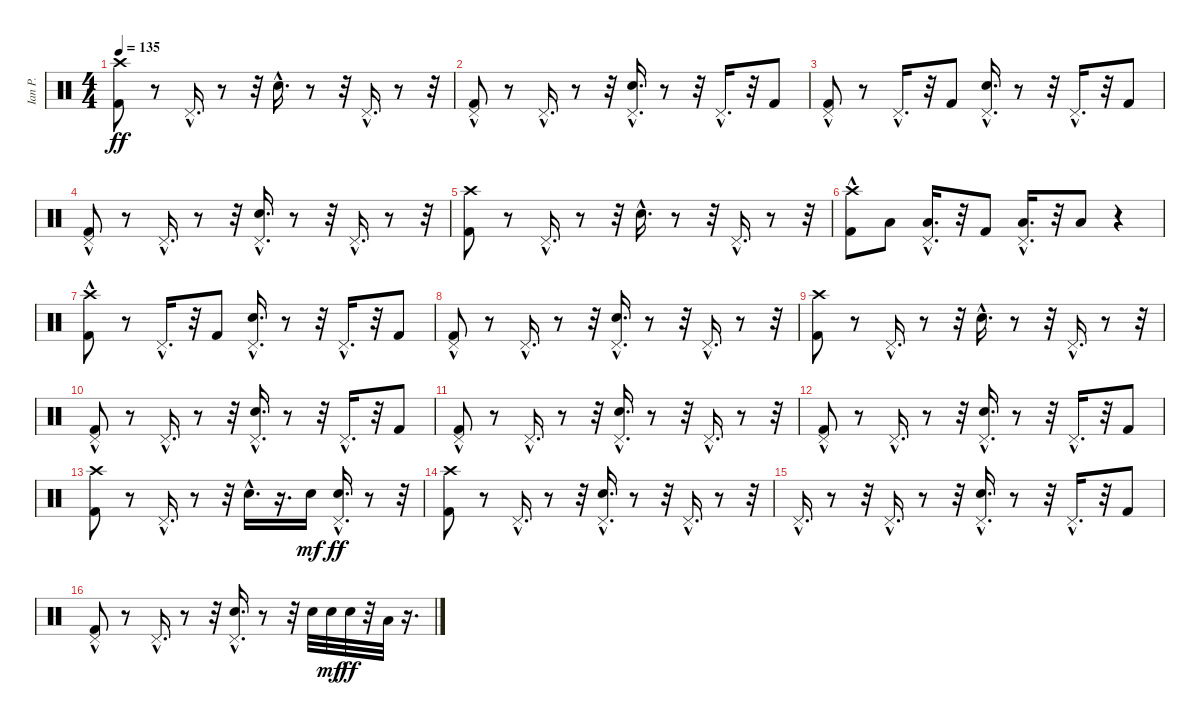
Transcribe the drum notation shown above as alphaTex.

\track ("Ian P." "Ian P.") {instrument percussion}
\staff {score}
\articulation defaults
\ts (4 4)
\tempo 135
\clef neutral
\ks c
("Crash high (hit)" "Kick (hit) 2").8{dy ff} r.8 "Pedal Hi-Hat (hit)"{hac}.16{d} r.8 r.32 "Snare (hit) 2"{hac}.16{d} r.8 r.32 "Pedal Hi-Hat (hit)"{hac}.16{d} r.8 r.32 |
("Kick (hit) 2" "Pedal Hi-Hat (hit)"{hac}).8 r.8 "Pedal Hi-Hat (hit)"{hac}.16{d} r.8 r.32 ("Snare (hit) 2"{hac} "Pedal Hi-Hat (hit)"{hac}).16{d} r.8 r.32 "Pedal Hi-Hat (hit)"{hac}.16{d} r.32 "Kick (hit) 2".8 |
("Kick (hit) 2" "Pedal Hi-Hat (hit)"{hac}).8 r.8 "Pedal Hi-Hat (hit)"{hac}.16{d} r.32 "Kick (hit) 2".8 ("Snare (hit) 2"{hac} "Pedal Hi-Hat (hit)"{hac}).16{d} r.8 r.32 "Pedal Hi-Hat (hit)"{hac}.16{d} r.32 "Kick (hit) 2".8 |
("Kick (hit) 2" "Pedal Hi-Hat (hit)"{hac}).8 r.8 "Pedal Hi-Hat (hit)"{hac}.16{d} r.8 r.32 ("Snare (hit) 2"{hac} "Pedal Hi-Hat (hit)"{hac}).16{d} r.8 r.32 "Pedal Hi-Hat (hit)"{hac}.16{d} r.8 r.32 |
("Crash high (hit)" "Kick (hit) 2").8 r.8 "Pedal Hi-Hat (hit)"{hac}.16{d} r.8 r.32 "Snare (hit) 2"{hac}.16{d} r.8 r.32 "Pedal Hi-Hat (hit)"{hac}.16{d} r.8 r.32 |
("Kick (hit) 2" "Crash high (hit)"{hac}).8 "Low Tom (hit)".8 ("Low Floor Tom (hit)"{hac} "Pedal Hi-Hat (hit)"{hac}).16{d} r.32 "Kick (hit) 2".8 ("Low Tom (hit)"{hac} "Pedal Hi-Hat (hit)"{hac}).16{d} r.32 "Low Floor Tom (hit)".8 r.4 |
("Kick (hit) 2" "Crash high (hit)"{hac}).8 r.8 "Pedal Hi-Hat (hit)"{hac}.16{d} r.32 "Kick (hit) 2".8 ("Snare (hit) 2"{hac} "Pedal Hi-Hat (hit)"{hac}).16{d} r.8 r.32 "Pedal Hi-Hat (hit)"{hac}.16{d} r.32 "Kick (hit) 2".8 |
("Kick (hit) 2" "Pedal Hi-Hat (hit)"{hac}).8 r.8 "Pedal Hi-Hat (hit)"{hac}.16{d} r.8 r.32 ("Snare (hit) 2"{hac} "Pedal Hi-Hat (hit)"{hac}).16{d} r.8 r.32 "Pedal Hi-Hat (hit)"{hac}.16{d} r.8 r.32 |
("Crash high (hit)" "Kick (hit) 2").8 r.8 "Pedal Hi-Hat (hit)"{hac}.16{d} r.8 r.32 "Snare (hit) 2"{hac}.16{d} r.8 r.32 "Pedal Hi-Hat (hit)"{hac}.16{d} r.8 r.32 |
("Kick (hit) 2" "Pedal Hi-Hat (hit)"{hac}).8 r.8 "Pedal Hi-Hat (hit)"{hac}.16{d} r.8 r.32 ("Snare (hit) 2"{hac} "Pedal Hi-Hat (hit)"{hac}).16{d} r.8 r.32 "Pedal Hi-Hat (hit)"{hac}.16{d} r.32 "Kick (hit) 2".8 |
("Kick (hit) 2" "Pedal Hi-Hat (hit)"{hac}).8 r.8 "Pedal Hi-Hat (hit)"{hac}.16{d} r.8 r.32 ("Snare (hit) 2"{hac} "Pedal Hi-Hat (hit)"{hac}).16{d} r.8 r.32 "Pedal Hi-Hat (hit)"{hac}.16{d} r.8 r.32 |
("Kick (hit) 2" "Pedal Hi-Hat (hit)"{hac}).8 r.8 "Pedal Hi-Hat (hit)"{hac}.16{d} r.8 r.32 ("Snare (hit) 2"{hac} "Pedal Hi-Hat (hit)"{hac}).16{d} r.8 r.32 "Pedal Hi-Hat (hit)"{hac}.16{d} r.32 "Kick (hit) 2".8 |
("Crash high (hit)" "Kick (hit) 2").8 r.8 "Pedal Hi-Hat (hit)"{hac}.16{d} r.8 r.32 "Snare (hit) 2"{hac}.16{d} r.16{d} "Snare (hit) 2".16{dy mf} ("Snare (hit) 2"{hac} "Pedal Hi-Hat (hit)"{hac}).16{d dy ff} r.8 r.32 |
("Kick (hit) 2" "Crash high (hit)").8 r.8 "Pedal Hi-Hat (hit)"{hac}.16{d} r.8 r.32 ("Snare (hit) 2"{hac} "Pedal Hi-Hat (hit)"{hac}).16{d} r.8 r.32 "Pedal Hi-Hat (hit)"{hac}.16{d} r.8 r.32 |
"Pedal Hi-Hat (hit)"{hac}.16{d} r.8 r.32 "Pedal Hi-Hat (hit)"{hac}.16{d} r.8 r.32 ("Snare (hit) 2"{hac} "Pedal Hi-Hat (hit)"{hac}).16{d} r.8 r.32 "Pedal Hi-Hat (hit)"{hac}.16{d} r.32 "Kick (hit) 2".8 |
("Kick (hit) 2" "Pedal Hi-Hat (hit)"{hac}).8 r.8 "Pedal Hi-Hat (hit)"{hac}.16{d} r.8 r.32 ("Snare (hit) 2"{hac} "Pedal Hi-Hat (hit)"{hac}).16{d} r.8 r.32 "Snare (hit) 2".32 "Snare (hit) 2".32{dy mf} "Snare (hit) 2".32{dy ff} r.32 "Low Floor Tom (hit)".32 r.16{d}
